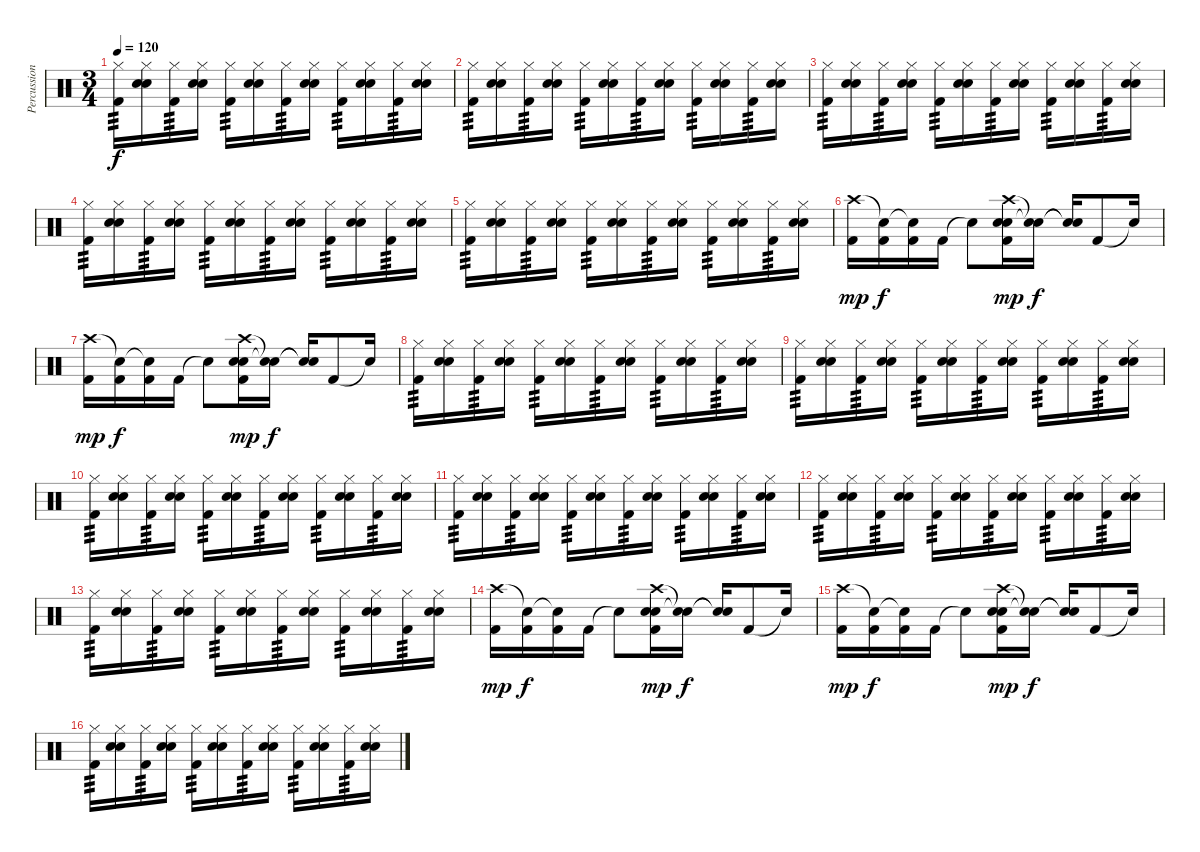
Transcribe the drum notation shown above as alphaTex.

\track ("Percussion" "Percussion") {instrument percussion}
\staff {score}
\articulation defaults
\ts (3 4)
\tempo 120
\clef neutral
\ks c
("Hi-Hat (closed)" "Kick (hit) 2").16{tp 3 dy f} ("Hi-Hat (closed)" "Snare (hit) 2" "Electric Snare (hit)").16 ("Hi-Hat (closed)" "Kick (hit) 2").16{tp 3} ("Hi-Hat (closed)" "Snare (hit) 2" "Electric Snare (hit)").16 ("Hi-Hat (closed)" "Kick (hit) 2").16{tp 3} ("Hi-Hat (closed)" "Snare (hit) 2" "Electric Snare (hit)").16 ("Hi-Hat (closed)" "Kick (hit) 2").16{tp 3} ("Hi-Hat (closed)" "Snare (hit) 2" "Electric Snare (hit)").16 ("Hi-Hat (closed)" "Kick (hit) 2").16{tp 3} ("Hi-Hat (closed)" "Snare (hit) 2" "Electric Snare (hit)").16 ("Hi-Hat (closed)" "Kick (hit) 2").16{tp 3} ("Hi-Hat (closed)" "Snare (hit) 2" "Electric Snare (hit)").16 |
("Hi-Hat (closed)" "Kick (hit) 2").16{tp 3} ("Hi-Hat (closed)" "Snare (hit) 2" "Electric Snare (hit)").16 ("Hi-Hat (closed)" "Kick (hit) 2").16{tp 3} ("Hi-Hat (closed)" "Snare (hit) 2" "Electric Snare (hit)").16 ("Hi-Hat (closed)" "Kick (hit) 2").16{tp 3} ("Hi-Hat (closed)" "Snare (hit) 2" "Electric Snare (hit)").16 ("Hi-Hat (closed)" "Kick (hit) 2").16{tp 3} ("Hi-Hat (closed)" "Snare (hit) 2" "Electric Snare (hit)").16 ("Hi-Hat (closed)" "Kick (hit) 2").16{tp 3} ("Hi-Hat (closed)" "Snare (hit) 2" "Electric Snare (hit)").16 ("Hi-Hat (closed)" "Kick (hit) 2").16{tp 3} ("Hi-Hat (closed)" "Snare (hit) 2" "Electric Snare (hit)").16 |
("Hi-Hat (closed)" "Kick (hit) 2").16{tp 3} ("Hi-Hat (closed)" "Snare (hit) 2" "Electric Snare (hit)").16 ("Hi-Hat (closed)" "Kick (hit) 2").16{tp 3} ("Hi-Hat (closed)" "Snare (hit) 2" "Electric Snare (hit)").16 ("Hi-Hat (closed)" "Kick (hit) 2").16{tp 3} ("Hi-Hat (closed)" "Snare (hit) 2" "Electric Snare (hit)").16 ("Hi-Hat (closed)" "Kick (hit) 2").16{tp 3} ("Hi-Hat (closed)" "Snare (hit) 2" "Electric Snare (hit)").16 ("Hi-Hat (closed)" "Kick (hit) 2").16{tp 3} ("Hi-Hat (closed)" "Snare (hit) 2" "Electric Snare (hit)").16 ("Hi-Hat (closed)" "Kick (hit) 2").16{tp 3} ("Hi-Hat (closed)" "Snare (hit) 2" "Electric Snare (hit)").16 |
("Hi-Hat (closed)" "Kick (hit) 2").16{tp 3} ("Hi-Hat (closed)" "Snare (hit) 2" "Electric Snare (hit)").16 ("Hi-Hat (closed)" "Kick (hit) 2").16{tp 3} ("Hi-Hat (closed)" "Snare (hit) 2" "Electric Snare (hit)").16 ("Hi-Hat (closed)" "Kick (hit) 2").16{tp 3} ("Hi-Hat (closed)" "Snare (hit) 2" "Electric Snare (hit)").16 ("Hi-Hat (closed)" "Kick (hit) 2").16{tp 3} ("Hi-Hat (closed)" "Snare (hit) 2" "Electric Snare (hit)").16 ("Hi-Hat (closed)" "Kick (hit) 2").16{tp 3} ("Hi-Hat (closed)" "Snare (hit) 2" "Electric Snare (hit)").16 ("Hi-Hat (closed)" "Kick (hit) 2").16{tp 3} ("Hi-Hat (closed)" "Snare (hit) 2" "Electric Snare (hit)").16 |
("Hi-Hat (closed)" "Kick (hit) 2").16{tp 3} ("Hi-Hat (closed)" "Snare (hit) 2" "Electric Snare (hit)").16 ("Hi-Hat (closed)" "Kick (hit) 2").16{tp 3} ("Hi-Hat (closed)" "Snare (hit) 2" "Electric Snare (hit)").16 ("Hi-Hat (closed)" "Kick (hit) 2").16{tp 3} ("Hi-Hat (closed)" "Snare (hit) 2" "Electric Snare (hit)").16 ("Hi-Hat (closed)" "Kick (hit) 2").16{tp 3} ("Hi-Hat (closed)" "Snare (hit) 2" "Electric Snare (hit)").16 ("Hi-Hat (closed)" "Kick (hit) 2").16{tp 3} ("Hi-Hat (closed)" "Snare (hit) 2" "Electric Snare (hit)").16 ("Hi-Hat (closed)" "Kick (hit) 2").16{tp 3} ("Hi-Hat (closed)" "Snare (hit) 2" "Electric Snare (hit)").16 |
("Crash high (hit)" "Kick (hit) 2").16{dy mp} ("Snare (hit)"{t} "Kick (hit) 2").16{dy f} ("Snare (hit)"{t} "Kick (hit) 2").16 "Kick (hit) 2".16 "Snare (hit)"{t}.8 ("Crash high (hit)" "Snare (hit) 2" "Electric Snare (hit)" "Kick (hit) 2").16{dy mp} ("Snare (hit)"{t} "Snare (hit)"{t}).16{dy f} ("Snare (hit)"{t} "Snare (hit)"{t}).16 "Kick (hit) 2".8 "Snare (hit)"{t}.16 |
("Crash high (hit)" "Kick (hit) 2").16{dy mp} ("Snare (hit)"{t} "Kick (hit) 2").16{dy f} ("Snare (hit)"{t} "Kick (hit) 2").16 "Kick (hit) 2".16 "Snare (hit)"{t}.8 ("Crash high (hit)" "Snare (hit) 2" "Electric Snare (hit)" "Kick (hit) 2").16{dy mp} ("Snare (hit)"{t} "Snare (hit)"{t}).16{dy f} ("Snare (hit)"{t} "Snare (hit)"{t}).16 "Kick (hit) 2".8 "Snare (hit)"{t}.16 |
("Hi-Hat (closed)" "Kick (hit) 2").16{tp 3} ("Hi-Hat (closed)" "Snare (hit) 2" "Electric Snare (hit)").16 ("Hi-Hat (closed)" "Kick (hit) 2").16{tp 3} ("Hi-Hat (closed)" "Snare (hit) 2" "Electric Snare (hit)").16 ("Hi-Hat (closed)" "Kick (hit) 2").16{tp 3} ("Hi-Hat (closed)" "Snare (hit) 2" "Electric Snare (hit)").16 ("Hi-Hat (closed)" "Kick (hit) 2").16{tp 3} ("Hi-Hat (closed)" "Snare (hit) 2" "Electric Snare (hit)").16 ("Hi-Hat (closed)" "Kick (hit) 2").16{tp 3} ("Hi-Hat (closed)" "Snare (hit) 2" "Electric Snare (hit)").16 ("Hi-Hat (closed)" "Kick (hit) 2").16{tp 3} ("Hi-Hat (closed)" "Snare (hit) 2" "Electric Snare (hit)").16 |
("Hi-Hat (closed)" "Kick (hit) 2").16{tp 3} ("Hi-Hat (closed)" "Snare (hit) 2" "Electric Snare (hit)").16 ("Hi-Hat (closed)" "Kick (hit) 2").16{tp 3} ("Hi-Hat (closed)" "Snare (hit) 2" "Electric Snare (hit)").16 ("Hi-Hat (closed)" "Kick (hit) 2").16{tp 3} ("Hi-Hat (closed)" "Snare (hit) 2" "Electric Snare (hit)").16 ("Hi-Hat (closed)" "Kick (hit) 2").16{tp 3} ("Hi-Hat (closed)" "Snare (hit) 2" "Electric Snare (hit)").16 ("Hi-Hat (closed)" "Kick (hit) 2").16{tp 3} ("Hi-Hat (closed)" "Snare (hit) 2" "Electric Snare (hit)").16 ("Hi-Hat (closed)" "Kick (hit) 2").16{tp 3} ("Hi-Hat (closed)" "Snare (hit) 2" "Electric Snare (hit)").16 |
("Hi-Hat (closed)" "Kick (hit) 2").16{tp 3} ("Hi-Hat (closed)" "Snare (hit) 2" "Electric Snare (hit)").16 ("Hi-Hat (closed)" "Kick (hit) 2").16{tp 3} ("Hi-Hat (closed)" "Snare (hit) 2" "Electric Snare (hit)").16 ("Hi-Hat (closed)" "Kick (hit) 2").16{tp 3} ("Hi-Hat (closed)" "Snare (hit) 2" "Electric Snare (hit)").16 ("Hi-Hat (closed)" "Kick (hit) 2").16{tp 3} ("Hi-Hat (closed)" "Snare (hit) 2" "Electric Snare (hit)").16 ("Hi-Hat (closed)" "Kick (hit) 2").16{tp 3} ("Hi-Hat (closed)" "Snare (hit) 2" "Electric Snare (hit)").16 ("Hi-Hat (closed)" "Kick (hit) 2").16{tp 3} ("Hi-Hat (closed)" "Snare (hit) 2" "Electric Snare (hit)").16 |
("Hi-Hat (closed)" "Kick (hit) 2").16{tp 3} ("Hi-Hat (closed)" "Snare (hit) 2" "Electric Snare (hit)").16 ("Hi-Hat (closed)" "Kick (hit) 2").16{tp 3} ("Hi-Hat (closed)" "Snare (hit) 2" "Electric Snare (hit)").16 ("Hi-Hat (closed)" "Kick (hit) 2").16{tp 3} ("Hi-Hat (closed)" "Snare (hit) 2" "Electric Snare (hit)").16 ("Hi-Hat (closed)" "Kick (hit) 2").16{tp 3} ("Hi-Hat (closed)" "Snare (hit) 2" "Electric Snare (hit)").16 ("Hi-Hat (closed)" "Kick (hit) 2").16{tp 3} ("Hi-Hat (closed)" "Snare (hit) 2" "Electric Snare (hit)").16 ("Hi-Hat (closed)" "Kick (hit) 2").16{tp 3} ("Hi-Hat (closed)" "Snare (hit) 2" "Electric Snare (hit)").16 |
("Hi-Hat (closed)" "Kick (hit) 2").16{tp 3} ("Hi-Hat (closed)" "Snare (hit) 2" "Electric Snare (hit)").16 ("Hi-Hat (closed)" "Kick (hit) 2").16{tp 3} ("Hi-Hat (closed)" "Snare (hit) 2" "Electric Snare (hit)").16 ("Hi-Hat (closed)" "Kick (hit) 2").16{tp 3} ("Hi-Hat (closed)" "Snare (hit) 2" "Electric Snare (hit)").16 ("Hi-Hat (closed)" "Kick (hit) 2").16{tp 3} ("Hi-Hat (closed)" "Snare (hit) 2" "Electric Snare (hit)").16 ("Hi-Hat (closed)" "Kick (hit) 2").16{tp 3} ("Hi-Hat (closed)" "Snare (hit) 2" "Electric Snare (hit)").16 ("Hi-Hat (closed)" "Kick (hit) 2").16{tp 3} ("Hi-Hat (closed)" "Snare (hit) 2" "Electric Snare (hit)").16 |
("Hi-Hat (closed)" "Kick (hit) 2").16{tp 3} ("Hi-Hat (closed)" "Snare (hit) 2" "Electric Snare (hit)").16 ("Hi-Hat (closed)" "Kick (hit) 2").16{tp 3} ("Hi-Hat (closed)" "Snare (hit) 2" "Electric Snare (hit)").16 ("Hi-Hat (closed)" "Kick (hit) 2").16{tp 3} ("Hi-Hat (closed)" "Snare (hit) 2" "Electric Snare (hit)").16 ("Hi-Hat (closed)" "Kick (hit) 2").16{tp 3} ("Hi-Hat (closed)" "Snare (hit) 2" "Electric Snare (hit)").16 ("Hi-Hat (closed)" "Kick (hit) 2").16{tp 3} ("Hi-Hat (closed)" "Snare (hit) 2" "Electric Snare (hit)").16 ("Hi-Hat (closed)" "Kick (hit) 2").16{tp 3} ("Hi-Hat (closed)" "Snare (hit) 2" "Electric Snare (hit)").16 |
("Crash high (hit)" "Kick (hit) 2").16{dy mp} ("Snare (hit)"{t} "Kick (hit) 2").16{dy f} ("Snare (hit)"{t} "Kick (hit) 2").16 "Kick (hit) 2".16 "Snare (hit)"{t}.8 ("Crash high (hit)" "Snare (hit) 2" "Electric Snare (hit)" "Kick (hit) 2").16{dy mp} ("Snare (hit)"{t} "Snare (hit)"{t}).16{dy f} ("Snare (hit)"{t} "Snare (hit)"{t}).16 "Kick (hit) 2".8 "Snare (hit)"{t}.16 |
("Crash high (hit)" "Kick (hit) 2").16{dy mp} ("Snare (hit)"{t} "Kick (hit) 2").16{dy f} ("Snare (hit)"{t} "Kick (hit) 2").16 "Kick (hit) 2".16 "Snare (hit)"{t}.8 ("Crash high (hit)" "Snare (hit) 2" "Electric Snare (hit)" "Kick (hit) 2").16{dy mp} ("Snare (hit)"{t} "Snare (hit)"{t}).16{dy f} ("Snare (hit)"{t} "Snare (hit)"{t}).16 "Kick (hit) 2".8 "Snare (hit)"{t}.16 |
("Hi-Hat (closed)" "Kick (hit) 2").16{tp 3} ("Hi-Hat (closed)" "Snare (hit) 2" "Electric Snare (hit)").16 ("Hi-Hat (closed)" "Kick (hit) 2").16{tp 3} ("Hi-Hat (closed)" "Snare (hit) 2" "Electric Snare (hit)").16 ("Hi-Hat (closed)" "Kick (hit) 2").16{tp 3} ("Hi-Hat (closed)" "Snare (hit) 2" "Electric Snare (hit)").16 ("Hi-Hat (closed)" "Kick (hit) 2").16{tp 3} ("Hi-Hat (closed)" "Snare (hit) 2" "Electric Snare (hit)").16 ("Hi-Hat (closed)" "Kick (hit) 2").16{tp 3} ("Hi-Hat (closed)" "Snare (hit) 2" "Electric Snare (hit)").16 ("Hi-Hat (closed)" "Kick (hit) 2").16{tp 3} ("Hi-Hat (closed)" "Snare (hit) 2" "Electric Snare (hit)").16
